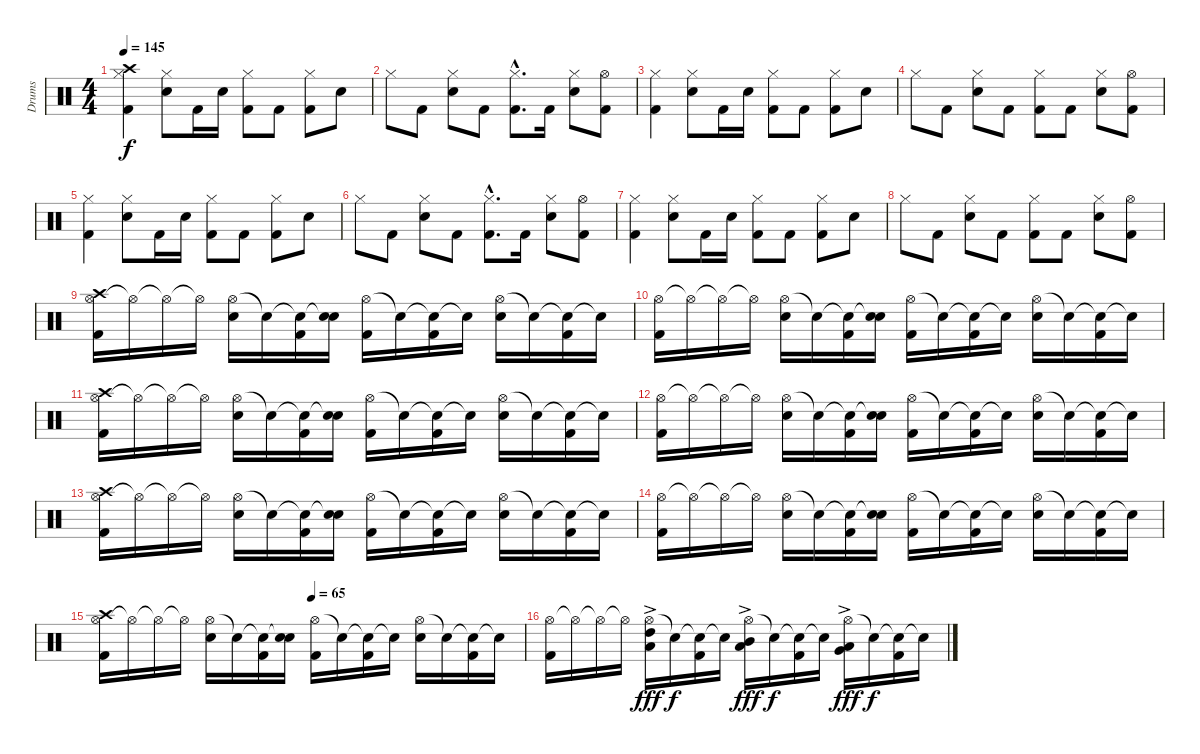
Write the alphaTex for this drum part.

\track ("Drums" "Drums") {instrument percussion}
\staff {score}
\articulation defaults
\ts (4 4)
\tempo 145
\clef neutral
\ks c
("Hi-Hat (closed)" "Kick (hit) 2" "Crash high (hit)").4{dy f} ("Hi-Hat (closed)" "Electric Snare (hit)").8 "Kick (hit) 2".16 "Electric Snare (hit)".16 ("Hi-Hat (closed)" "Kick (hit) 2").8 "Kick (hit) 2".8 ("Hi-Hat (closed)" "Kick (hit) 2").8 "Electric Snare (hit)".8 |
"Hi-Hat (closed)".8 "Kick (hit) 2".8 ("Hi-Hat (closed)" "Electric Snare (hit)").8 "Kick (hit) 2".8 ("Hi-Hat (closed)"{hac} "Kick (hit) 2"{hac}).8{d} "Kick (hit) 2".16 ("Hi-Hat (closed)" "Electric Snare (hit)").8 ("Hi-Hat (open)" "Kick (hit) 2").8 |
("Hi-Hat (closed)" "Kick (hit) 2").4 ("Hi-Hat (closed)" "Electric Snare (hit)").8 "Kick (hit) 2".16 "Electric Snare (hit)".16 ("Hi-Hat (closed)" "Kick (hit) 2").8 "Kick (hit) 2".8 ("Hi-Hat (closed)" "Kick (hit) 2").8 "Electric Snare (hit)".8 |
"Hi-Hat (closed)".8 "Kick (hit) 2".8 ("Hi-Hat (closed)" "Electric Snare (hit)").8 "Kick (hit) 2".8 ("Hi-Hat (closed)" "Kick (hit) 2").8 "Kick (hit) 2".8 ("Hi-Hat (closed)" "Electric Snare (hit)").8 ("Hi-Hat (open)" "Kick (hit) 2").8 |
("Hi-Hat (closed)" "Kick (hit) 2").4 ("Hi-Hat (closed)" "Electric Snare (hit)").8 "Kick (hit) 2".16 "Electric Snare (hit)".16 ("Hi-Hat (closed)" "Kick (hit) 2").8 "Kick (hit) 2".8 ("Hi-Hat (closed)" "Kick (hit) 2").8 "Electric Snare (hit)".8 |
"Hi-Hat (closed)".8 "Kick (hit) 2".8 ("Hi-Hat (closed)" "Electric Snare (hit)").8 "Kick (hit) 2".8 ("Hi-Hat (closed)"{hac} "Kick (hit) 2"{hac}).8{d} "Kick (hit) 2".16 ("Hi-Hat (closed)" "Electric Snare (hit)").8 ("Hi-Hat (open)" "Kick (hit) 2").8 |
("Hi-Hat (closed)" "Kick (hit) 2").4 ("Hi-Hat (closed)" "Electric Snare (hit)").8 "Kick (hit) 2".16 "Electric Snare (hit)".16 ("Hi-Hat (closed)" "Kick (hit) 2").8 "Kick (hit) 2".8 ("Hi-Hat (closed)" "Kick (hit) 2").8 "Electric Snare (hit)".8 |
"Hi-Hat (closed)".8 "Kick (hit) 2".8 ("Hi-Hat (closed)" "Electric Snare (hit)").8 "Kick (hit) 2".8 ("Hi-Hat (closed)" "Kick (hit) 2").8 "Kick (hit) 2".8 ("Hi-Hat (closed)" "Electric Snare (hit)").8 ("Hi-Hat (open)" "Kick (hit) 2").8 |
("Hi-Hat (open)" "Kick (hit) 2" "Crash high (hit)").16 "Hi-Hat (open)"{t}.16 "Hi-Hat (open)"{t}.16 "Hi-Hat (open)"{t}.16 ("Hi-Hat (open)" "Electric Snare (hit)").16 "Snare (hit)"{t}.16 ("Snare (hit)"{t} "Kick (hit) 2").16 ("Snare (hit)"{t} "Electric Snare (hit)").16 ("Hi-Hat (open)" "Kick (hit) 2").16 "Snare (hit)"{t}.16 ("Snare (hit)"{t} "Kick (hit) 2").16 "Snare (hit)"{t}.16 ("Hi-Hat (open)" "Electric Snare (hit)").16 "Snare (hit)"{t}.16 ("Snare (hit)"{t} "Kick (hit) 2").16 "Snare (hit)"{t}.16 |
("Hi-Hat (open)" "Kick (hit) 2").16 "Hi-Hat (open)"{t}.16 "Hi-Hat (open)"{t}.16 "Hi-Hat (open)"{t}.16 ("Hi-Hat (open)" "Electric Snare (hit)").16 "Snare (hit)"{t}.16 ("Snare (hit)"{t} "Kick (hit) 2").16 ("Snare (hit)"{t} "Electric Snare (hit)").16 ("Hi-Hat (open)" "Kick (hit) 2").16 "Snare (hit)"{t}.16 ("Snare (hit)"{t} "Kick (hit) 2").16 "Snare (hit)"{t}.16 ("Hi-Hat (open)" "Electric Snare (hit)").16 "Snare (hit)"{t}.16 ("Snare (hit)"{t} "Kick (hit) 2").16 "Snare (hit)"{t}.16 |
("Hi-Hat (open)" "Kick (hit) 2" "Crash high (hit)").16 "Hi-Hat (open)"{t}.16 "Hi-Hat (open)"{t}.16 "Hi-Hat (open)"{t}.16 ("Hi-Hat (open)" "Electric Snare (hit)").16 "Snare (hit)"{t}.16 ("Snare (hit)"{t} "Kick (hit) 2").16 ("Snare (hit)"{t} "Electric Snare (hit)").16 ("Hi-Hat (open)" "Kick (hit) 2").16 "Snare (hit)"{t}.16 ("Snare (hit)"{t} "Kick (hit) 2").16 "Snare (hit)"{t}.16 ("Hi-Hat (open)" "Electric Snare (hit)").16 "Snare (hit)"{t}.16 ("Snare (hit)"{t} "Kick (hit) 2").16 "Snare (hit)"{t}.16 |
("Hi-Hat (open)" "Kick (hit) 2").16 "Hi-Hat (open)"{t}.16 "Hi-Hat (open)"{t}.16 "Hi-Hat (open)"{t}.16 ("Hi-Hat (open)" "Electric Snare (hit)").16 "Snare (hit)"{t}.16 ("Snare (hit)"{t} "Kick (hit) 2").16 ("Snare (hit)"{t} "Electric Snare (hit)").16 ("Hi-Hat (open)" "Kick (hit) 2").16 "Snare (hit)"{t}.16 ("Snare (hit)"{t} "Kick (hit) 2").16 "Snare (hit)"{t}.16 ("Hi-Hat (open)" "Electric Snare (hit)").16 "Snare (hit)"{t}.16 ("Snare (hit)"{t} "Kick (hit) 2").16 "Snare (hit)"{t}.16 |
("Hi-Hat (open)" "Kick (hit) 2" "Crash high (hit)").16 "Hi-Hat (open)"{t}.16 "Hi-Hat (open)"{t}.16 "Hi-Hat (open)"{t}.16 ("Hi-Hat (open)" "Electric Snare (hit)").16 "Snare (hit)"{t}.16 ("Snare (hit)"{t} "Kick (hit) 2").16 ("Snare (hit)"{t} "Electric Snare (hit)").16 ("Hi-Hat (open)" "Kick (hit) 2").16 "Snare (hit)"{t}.16 ("Snare (hit)"{t} "Kick (hit) 2").16 "Snare (hit)"{t}.16 ("Hi-Hat (open)" "Electric Snare (hit)").16 "Snare (hit)"{t}.16 ("Snare (hit)"{t} "Kick (hit) 2").16 "Snare (hit)"{t}.16 |
("Hi-Hat (open)" "Kick (hit) 2").16 "Hi-Hat (open)"{t}.16 "Hi-Hat (open)"{t}.16 "Hi-Hat (open)"{t}.16 ("Hi-Hat (open)" "Electric Snare (hit)").16 "Snare (hit)"{t}.16 ("Snare (hit)"{t} "Kick (hit) 2").16 ("Snare (hit)"{t} "Electric Snare (hit)").16 ("Hi-Hat (open)" "Kick (hit) 2").16 "Snare (hit)"{t}.16 ("Snare (hit)"{t} "Kick (hit) 2").16 "Snare (hit)"{t}.16 ("Hi-Hat (open)" "Electric Snare (hit)").16 "Snare (hit)"{t}.16 ("Snare (hit)"{t} "Kick (hit) 2").16 "Snare (hit)"{t}.16 |
\tempo (65 0.5)
("Hi-Hat (open)" "Kick (hit) 2" "Crash high (hit)").16 "Hi-Hat (open)"{t}.16 "Hi-Hat (open)"{t}.16 "Hi-Hat (open)"{t}.16 ("Hi-Hat (open)" "Electric Snare (hit)").16 "Snare (hit)"{t}.16 ("Snare (hit)"{t} "Kick (hit) 2").16 ("Snare (hit)"{t} "Electric Snare (hit)").16 ("Hi-Hat (open)" "Kick (hit) 2").16 "Snare (hit)"{t}.16 ("Snare (hit)"{t} "Kick (hit) 2").16 "Snare (hit)"{t}.16 ("Hi-Hat (open)" "Electric Snare (hit)").16 "Snare (hit)"{t}.16 ("Snare (hit)"{t} "Kick (hit) 2").16 "Snare (hit)"{t}.16 |
("Hi-Hat (open)" "Kick (hit) 2").16 "Hi-Hat (open)"{t}.16 "Hi-Hat (open)"{t}.16 "Hi-Hat (open)"{t}.16 ("Hi-Hat (open)" "Low Tom (hit)"{ac} "High Tom (hit)"{ac}).16{dy fff} "Snare (hit)"{t}.16{dy f} ("Snare (hit)"{t} "Kick (hit) 2").16 "Snare (hit)"{t}.16 ("Hi-Hat (open)" "Mid Tom (hit)"{ac} "Low Tom (hit)"{ac}).16{dy fff} "Snare (hit)"{t}.16{dy f} ("Snare (hit)"{t} "Kick (hit) 2").16 "Snare (hit)"{t}.16 ("Hi-Hat (open)" "Low Tom (hit)"{ac} "Very Low Tom (hit)"{ac}).16{dy fff} "Snare (hit)"{t}.16{dy f} ("Snare (hit)"{t} "Kick (hit) 2").16 "Snare (hit)"{t}.16
